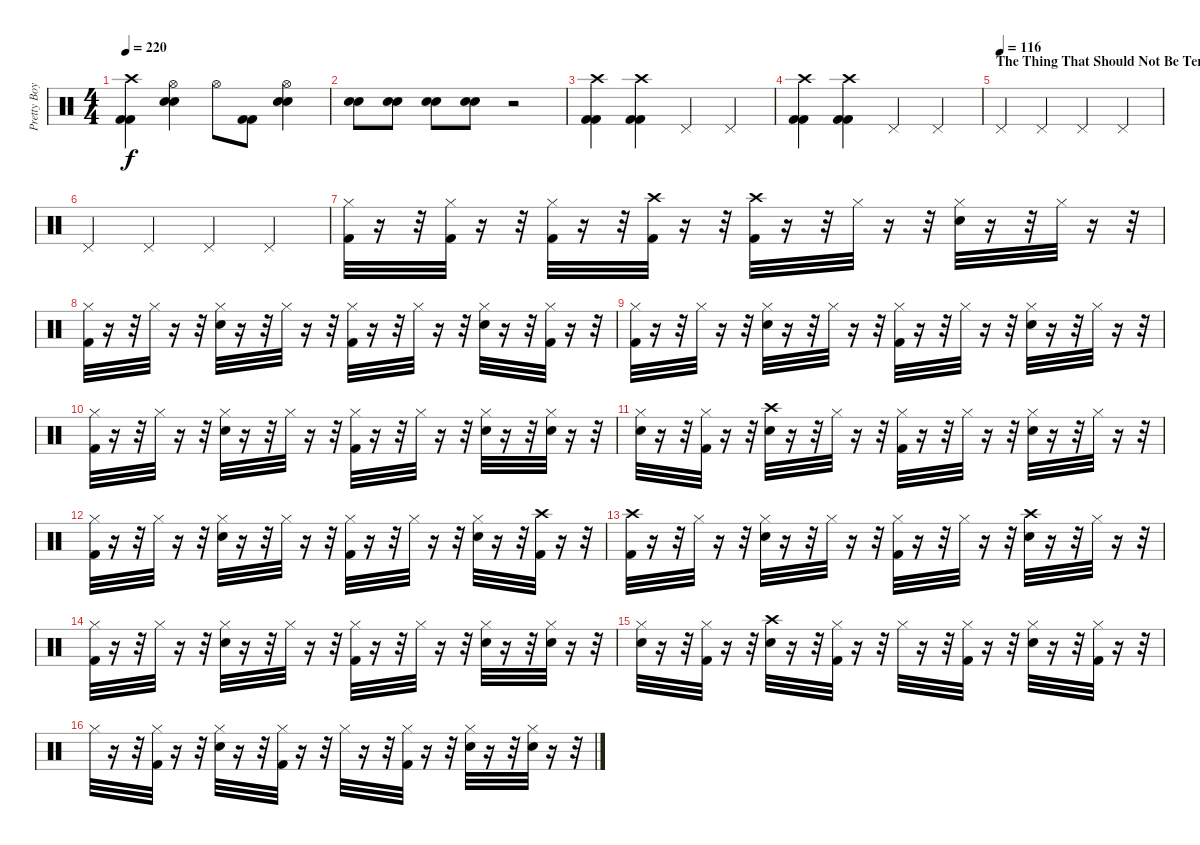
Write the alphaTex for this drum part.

\track ("Pretty Boy Geoff (Lars Drums)" "Pretty Boy") {instrument percussion}
\staff {score}
\articulation defaults
\ts (4 4)
\tempo 220
\clef neutral
\ks c
("Crash high (hit)" "Kick (hit) 2" "Kick (hit) 2").4{dy f} ("Hi-Hat (open)" "Electric Snare (hit)" "Electric Snare (hit)").4 "Hi-Hat (open)".8 ("Kick (hit) 2" "Kick (hit) 2").8 ("Hi-Hat (open)" "Electric Snare (hit)" "Electric Snare (hit)").4 |
("Electric Snare (hit)" "Electric Snare (hit)").8 ("Electric Snare (hit)" "Electric Snare (hit)").8 ("Electric Snare (hit)" "Electric Snare (hit)").8 ("Electric Snare (hit)" "Electric Snare (hit)").8 r.2 |
("Crash high (hit)" "Kick (hit) 2" "Kick (hit) 2").4 ("Crash high (hit)" "Kick (hit) 2" "Kick (hit) 2").4 "Pedal Hi-Hat (hit)".4 "Pedal Hi-Hat (hit)".4 |
("Crash high (hit)" "Kick (hit) 2" "Kick (hit) 2").4 ("Crash high (hit)" "Kick (hit) 2" "Kick (hit) 2").4 "Pedal Hi-Hat (hit)".4 "Pedal Hi-Hat (hit)".4 |
\section ("" "The Thing That Should Not Be Tempo = 116 Bpm")
\tempo (116)
"Pedal Hi-Hat (hit)".4 "Pedal Hi-Hat (hit)".4 "Pedal Hi-Hat (hit)".4 "Pedal Hi-Hat (hit)".4 |
"Pedal Hi-Hat (hit)".4 "Pedal Hi-Hat (hit)".4 "Pedal Hi-Hat (hit)".4 "Pedal Hi-Hat (hit)".4 |
("Kick (hit) 2" "Hi-Hat (closed)").32 r.16 r.32 ("Kick (hit) 2" "Hi-Hat (closed)").32 r.16 r.32 ("Kick (hit) 2" "Hi-Hat (closed)").32 r.16 r.32 ("Kick (hit) 2" "Crash high (hit)").32 r.16 r.32 ("Kick (hit) 2" "Crash high (hit)").32 r.16 r.32 "Hi-Hat (closed)".32 r.16 r.32 ("Snare (hit) 2" "Hi-Hat (closed)").32 r.16 r.32 "Hi-Hat (closed)".32 r.16 r.32 |
("Hi-Hat (closed)" "Kick (hit) 2").32 r.16 r.32 "Hi-Hat (closed)".32 r.16 r.32 ("Snare (hit) 2" "Hi-Hat (closed)").32 r.16 r.32 "Hi-Hat (closed)".32 r.16 r.32 ("Hi-Hat (closed)" "Kick (hit) 2").32 r.16 r.32 "Hi-Hat (closed)".32 r.16 r.32 ("Snare (hit) 2" "Hi-Hat (closed)").32 r.16 r.32 ("Hi-Hat (closed)" "Kick (hit) 2").32 r.16 r.32 |
("Kick (hit) 2" "Hi-Hat (closed)").32 r.16 r.32 "Hi-Hat (closed)".32 r.16 r.32 ("Snare (hit) 2" "Hi-Hat (closed)").32 r.16 r.32 "Hi-Hat (closed)".32 r.16 r.32 ("Kick (hit) 2" "Hi-Hat (closed)").32 r.16 r.32 "Hi-Hat (closed)".32 r.16 r.32 ("Snare (hit) 2" "Hi-Hat (closed)").32 r.16 r.32 "Hi-Hat (closed)".32 r.16 r.32 |
("Kick (hit) 2" "Hi-Hat (closed)").32 r.16 r.32 "Hi-Hat (closed)".32 r.16 r.32 ("Snare (hit) 2" "Hi-Hat (closed)").32 r.16 r.32 "Hi-Hat (closed)".32 r.16 r.32 ("Kick (hit) 2" "Hi-Hat (closed)").32 r.16 r.32 "Hi-Hat (closed)".32 r.16 r.32 ("Snare (hit) 2" "Hi-Hat (closed)").32 r.16 r.32 ("Snare (hit) 2" "Hi-Hat (closed)").32 r.16 r.32 |
("Snare (hit) 2" "Hi-Hat (closed)").32 r.16 r.32 ("Kick (hit) 2" "Hi-Hat (closed)").32 r.16 r.32 ("Crash high (hit)" "Snare (hit) 2").32 r.16 r.32 "Hi-Hat (closed)".32 r.16 r.32 ("Hi-Hat (closed)" "Kick (hit) 2").32 r.16 r.32 "Hi-Hat (closed)".32 r.16 r.32 ("Snare (hit) 2" "Hi-Hat (closed)").32 r.16 r.32 "Hi-Hat (closed)".32 r.16 r.32 |
("Hi-Hat (closed)" "Kick (hit) 2").32 r.16 r.32 "Hi-Hat (closed)".32 r.16 r.32 ("Snare (hit) 2" "Hi-Hat (closed)").32 r.16 r.32 "Hi-Hat (closed)".32 r.16 r.32 ("Hi-Hat (closed)" "Kick (hit) 2").32 r.16 r.32 "Hi-Hat (closed)".32 r.16 r.32 ("Snare (hit) 2" "Hi-Hat (closed)").32 r.16 r.32 ("Crash high (hit)" "Kick (hit) 2").32 r.16 r.32 |
("Kick (hit) 2" "Crash high (hit)").32 r.16 r.32 "Hi-Hat (closed)".32 r.16 r.32 ("Snare (hit) 2" "Hi-Hat (closed)").32 r.16 r.32 "Hi-Hat (closed)".32 r.16 r.32 ("Hi-Hat (closed)" "Kick (hit) 2").32 r.16 r.32 "Hi-Hat (closed)".32 r.16 r.32 ("Crash high (hit)" "Snare (hit) 2").32 r.16 r.32 "Hi-Hat (closed)".32 r.16 r.32 |
("Kick (hit) 2" "Hi-Hat (closed)").32 r.16 r.32 "Hi-Hat (closed)".32 r.16 r.32 ("Snare (hit) 2" "Hi-Hat (closed)").32 r.16 r.32 "Hi-Hat (closed)".32 r.16 r.32 ("Kick (hit) 2" "Hi-Hat (closed)").32 r.16 r.32 "Hi-Hat (closed)".32 r.16 r.32 ("Snare (hit) 2" "Hi-Hat (closed)").32 r.16 r.32 ("Snare (hit) 2" "Hi-Hat (closed)").32 r.16 r.32 |
("Snare (hit) 2" "Hi-Hat (closed)").32 r.16 r.32 ("Kick (hit) 2" "Hi-Hat (closed)").32 r.16 r.32 ("Crash high (hit)" "Snare (hit) 2").32 r.16 r.32 ("Kick (hit) 2" "Hi-Hat (closed)").32 r.16 r.32 "Hi-Hat (closed)".32 r.16 r.32 ("Kick (hit) 2" "Hi-Hat (closed)").32 r.16 r.32 ("Snare (hit) 2" "Hi-Hat (closed)").32 r.16 r.32 ("Kick (hit) 2" "Hi-Hat (closed)").32 r.16 r.32 |
"Hi-Hat (closed)".32 r.16 r.32 ("Kick (hit) 2" "Hi-Hat (closed)").32 r.16 r.32 ("Snare (hit) 2" "Hi-Hat (closed)").32 r.16 r.32 ("Kick (hit) 2" "Hi-Hat (closed)").32 r.16 r.32 "Hi-Hat (closed)".32 r.16 r.32 ("Kick (hit) 2" "Hi-Hat (closed)").32 r.16 r.32 ("Snare (hit) 2" "Hi-Hat (closed)").32 r.16 r.32 ("Snare (hit) 2" "Hi-Hat (closed)").32 r.16 r.32
